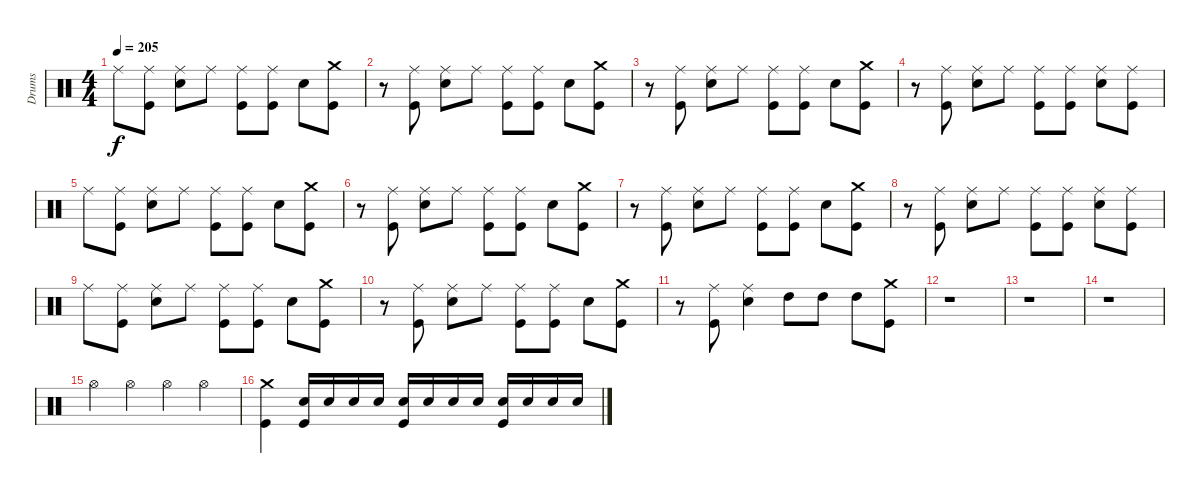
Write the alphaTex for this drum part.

\track ("Drums" "Drums") {instrument percussion}
\staff {score}
\articulation defaults
\ts (4 4)
\tempo 205
\clef neutral
\ks c "Ride (middle)".8{dy f}
("Ride (middle)" "Kick (hit)").8 ("Ride (middle)" "Electric Snare (hit)").8 "Ride (middle)".8 ("Ride (middle)" "Kick (hit)").8 ("Ride (middle)" "Kick (hit)").8 "Electric Snare (hit)".8 ("Crash medium (hit)" "Kick (hit)").8 |
r.8 ("Ride (middle)" "Kick (hit)").8 ("Ride (middle)" "Electric Snare (hit)").8 "Ride (middle)".8 ("Ride (middle)" "Kick (hit)").8 ("Ride (middle)" "Kick (hit)").8 "Electric Snare (hit)".8 ("Crash medium (hit)" "Kick (hit)").8 |
r.8 ("Ride (middle)" "Kick (hit)").8 ("Ride (middle)" "Electric Snare (hit)").8 "Ride (middle)".8 ("Ride (middle)" "Kick (hit)").8 ("Ride (middle)" "Kick (hit)").8 "Electric Snare (hit)".8 ("Crash medium (hit)" "Kick (hit)").8 |
r.8 ("Ride (middle)" "Kick (hit)").8 ("Ride (middle)" "Electric Snare (hit)").8 "Ride (middle)".8 ("Ride (middle)" "Kick (hit)").8 ("Ride (middle)" "Kick (hit)").8 ("Ride (middle)" "Electric Snare (hit)").8 ("Ride (middle)" "Kick (hit)").8 |
"Ride (middle)".8 ("Ride (middle)" "Kick (hit)").8 ("Ride (middle)" "Electric Snare (hit)").8 "Ride (middle)".8 ("Ride (middle)" "Kick (hit)").8 ("Ride (middle)" "Kick (hit)").8 "Electric Snare (hit)".8 ("Crash medium (hit)" "Kick (hit)").8 |
r.8 ("Ride (middle)" "Kick (hit)").8 ("Ride (middle)" "Electric Snare (hit)").8 "Ride (middle)".8 ("Ride (middle)" "Kick (hit)").8 ("Ride (middle)" "Kick (hit)").8 "Electric Snare (hit)".8 ("Crash medium (hit)" "Kick (hit)").8 |
r.8 ("Ride (middle)" "Kick (hit)").8 ("Ride (middle)" "Electric Snare (hit)").8 "Ride (middle)".8 ("Ride (middle)" "Kick (hit)").8 ("Ride (middle)" "Kick (hit)").8 "Electric Snare (hit)".8 ("Crash medium (hit)" "Kick (hit)").8 |
r.8 ("Ride (middle)" "Kick (hit)").8 ("Ride (middle)" "Electric Snare (hit)").8 "Ride (middle)".8 ("Ride (middle)" "Kick (hit)").8 ("Ride (middle)" "Kick (hit)").8 ("Ride (middle)" "Electric Snare (hit)").8 ("Ride (middle)" "Kick (hit)").8 |
"Ride (middle)".8 ("Ride (middle)" "Kick (hit)").8 ("Ride (middle)" "Electric Snare (hit)").8 "Ride (middle)".8 ("Ride (middle)" "Kick (hit)").8 ("Ride (middle)" "Kick (hit)").8 "Electric Snare (hit)".8 ("Crash medium (hit)" "Kick (hit)").8 |
r.8 ("Ride (middle)" "Kick (hit)").8 ("Ride (middle)" "Electric Snare (hit)").8 "Ride (middle)".8 ("Ride (middle)" "Kick (hit)").8 ("Ride (middle)" "Kick (hit)").8 "Electric Snare (hit)".8 ("Crash medium (hit)" "Kick (hit)").8 |
r.8 ("Ride (middle)" "Kick (hit)").8 ("Ride (middle)" "Electric Snare (hit)").4 "High Tom (hit)".8 "High Tom (hit)".8 "High Tom (hit)".8 ("Crash medium (hit)" "Kick (hit)").8 |
r.1 |
r.1 |
r.1 |
"Hi-Hat (open)".4 "Hi-Hat (open)".4 "Hi-Hat (open)".4 "Hi-Hat (open)".4 |
("Crash medium (hit)" "Kick (hit)").4 ("Electric Snare (hit)" "Kick (hit)").16 "Electric Snare (hit)".16 "Electric Snare (hit)".16 "Electric Snare (hit)".16 ("Electric Snare (hit)" "Kick (hit)").16 "Electric Snare (hit)".16 "Electric Snare (hit)".16 "Electric Snare (hit)".16 ("Electric Snare (hit)" "Kick (hit)").16 "Electric Snare (hit)".16 "Electric Snare (hit)".16 "Electric Snare (hit)".16
